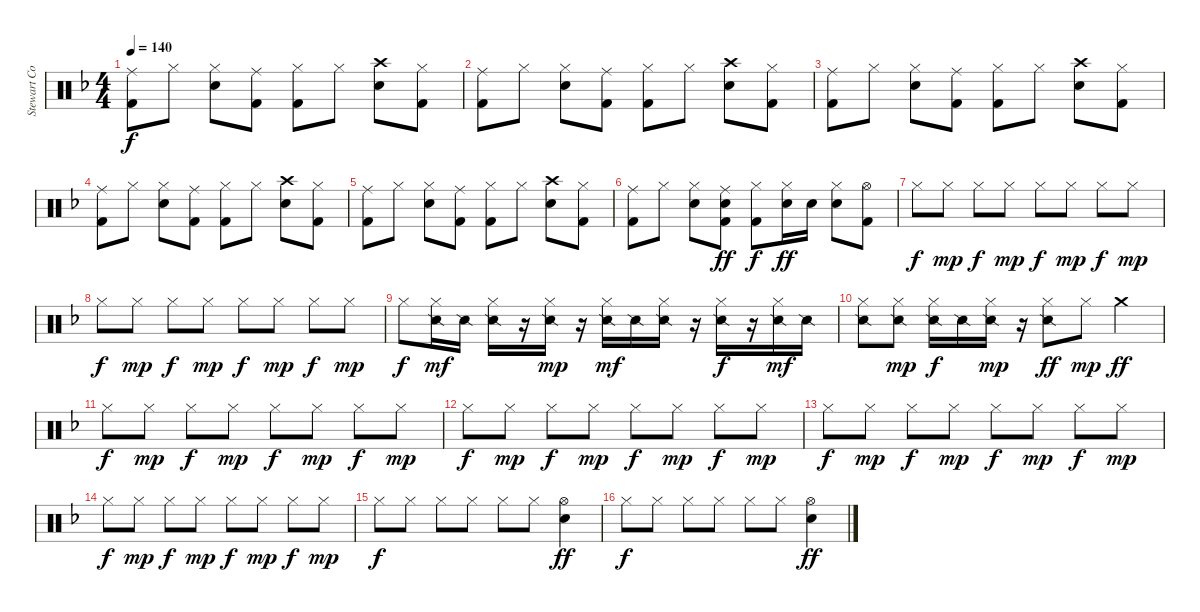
\track ("Stewart Copeland" "Stewart Co") {instrument percussion}
\staff {score}
\articulation defaults
\ts (4 4)
\tempo 140
\clef neutral
\ks f
("Ride (middle)" "Kick (hit) 2").8{dy f} "Hi-Hat (closed)".8 ("Hi-Hat (closed)" "Snare (hit) 2").8 ("Ride (middle)" "Kick (hit) 2").8 ("Hi-Hat (closed)" "Kick (hit) 2").8 "Hi-Hat (closed)".8 ("Crash high (hit)" "Snare (hit) 2").8 ("Hi-Hat (closed)" "Kick (hit) 2").8 |
("Ride (middle)" "Kick (hit) 2").8 "Hi-Hat (closed)".8 ("Hi-Hat (closed)" "Snare (hit) 2").8 ("Ride (middle)" "Kick (hit) 2").8 ("Hi-Hat (closed)" "Kick (hit) 2").8 "Hi-Hat (closed)".8 ("Crash high (hit)" "Snare (hit) 2").8 ("Hi-Hat (closed)" "Kick (hit) 2").8 |
("Ride (middle)" "Kick (hit) 2").8 "Hi-Hat (closed)".8 ("Hi-Hat (closed)" "Snare (hit) 2").8 ("Ride (middle)" "Kick (hit) 2").8 ("Hi-Hat (closed)" "Kick (hit) 2").8 "Hi-Hat (closed)".8 ("Crash high (hit)" "Snare (hit) 2").8 ("Hi-Hat (closed)" "Kick (hit) 2").8 |
("Ride (middle)" "Kick (hit) 2").8 "Hi-Hat (closed)".8 ("Hi-Hat (closed)" "Snare (hit) 2").8 ("Ride (middle)" "Kick (hit) 2").8 ("Hi-Hat (closed)" "Kick (hit) 2").8 "Hi-Hat (closed)".8 ("Crash high (hit)" "Snare (hit) 2").8 ("Hi-Hat (closed)" "Kick (hit) 2").8 |
("Ride (middle)" "Kick (hit) 2").8 "Hi-Hat (closed)".8 ("Hi-Hat (closed)" "Snare (hit) 2").8 ("Ride (middle)" "Kick (hit) 2").8 ("Hi-Hat (closed)" "Kick (hit) 2").8 "Hi-Hat (closed)".8 ("Crash high (hit)" "Snare (hit) 2").8 ("Hi-Hat (closed)" "Kick (hit) 2").8 |
("Ride (middle)" "Kick (hit) 2").8 "Hi-Hat (closed)".8 ("Hi-Hat (closed)" "Snare (hit) 2").8 ("Ride (middle)" "Snare (hit) 2" "Kick (hit) 2").8{dy ff} ("Hi-Hat (closed)" "Kick (hit) 2").8{dy f} ("Hi-Hat (closed)" "Snare (hit) 2").16{dy ff} "Snare (hit) 2".16 ("Hi-Hat (closed)" "Snare (hit) 2").8 ("Hi-Hat (open)" "Kick (hit) 2").8 |
"Hi-Hat (closed)".8{dy f} "Hi-Hat (closed)".8{dy mp} "Hi-Hat (closed)".8{dy f} "Hi-Hat (closed)".8{dy mp} "Hi-Hat (closed)".8{dy f} "Hi-Hat (closed)".8{dy mp} "Hi-Hat (closed)".8{dy f} "Hi-Hat (closed)".8{dy mp} |
"Hi-Hat (closed)".8{dy f} "Hi-Hat (closed)".8{dy mp} "Hi-Hat (closed)".8{dy f} "Hi-Hat (closed)".8{dy mp} "Hi-Hat (closed)".8{dy f} "Hi-Hat (closed)".8{dy mp} "Hi-Hat (closed)".8{dy f} "Hi-Hat (closed)".8{dy mp} |
"Hi-Hat (closed)".8{dy f} ("Hi-Hat (closed)" "Snare (side stick) 2").16{dy mf} "Snare (side stick) 2".16 ("Hi-Hat (closed)" "Snare (side stick) 2").16 r.16 ("Hi-Hat (closed)" "Snare (side stick) 2").16{dy mp} r.16 ("Hi-Hat (closed)" "Snare (side stick) 2").16{dy mf} "Snare (side stick) 2".16 ("Hi-Hat (closed)" "Snare (side stick) 2").16 r.16 ("Hi-Hat (closed)" "Snare (side stick) 2").16{dy f} r.16 ("Hi-Hat (closed)" "Snare (side stick) 2").16{dy mf} "Snare (side stick) 2".16 |
("Hi-Hat (closed)" "Snare (side stick) 2").8 ("Hi-Hat (closed)" "Snare (side stick) 2").8{dy mp} ("Hi-Hat (closed)" "Snare (side stick) 2").16{dy f} "Snare (side stick) 2".16 ("Hi-Hat (closed)" "Snare (side stick) 2").16{dy mp} r.16 ("Hi-Hat (closed)" "Snare (side stick) 2").8{dy ff} "Hi-Hat (closed)".8{dy mp} "Crash medium (hit)".4{dy ff} |
"Hi-Hat (closed)".8{dy f} "Hi-Hat (closed)".8{dy mp} "Hi-Hat (closed)".8{dy f} "Hi-Hat (closed)".8{dy mp} "Hi-Hat (closed)".8{dy f} "Hi-Hat (closed)".8{dy mp} "Hi-Hat (closed)".8{dy f} "Hi-Hat (closed)".8{dy mp} |
"Hi-Hat (closed)".8{dy f} "Hi-Hat (closed)".8{dy mp} "Hi-Hat (closed)".8{dy f} "Hi-Hat (closed)".8{dy mp} "Hi-Hat (closed)".8{dy f} "Hi-Hat (closed)".8{dy mp} "Hi-Hat (closed)".8{dy f} "Hi-Hat (closed)".8{dy mp} |
"Hi-Hat (closed)".8{dy f} "Hi-Hat (closed)".8{dy mp} "Hi-Hat (closed)".8{dy f} "Hi-Hat (closed)".8{dy mp} "Hi-Hat (closed)".8{dy f} "Hi-Hat (closed)".8{dy mp} "Hi-Hat (closed)".8{dy f} "Hi-Hat (closed)".8{dy mp} |
"Hi-Hat (closed)".8{dy f} "Hi-Hat (closed)".8{dy mp} "Hi-Hat (closed)".8{dy f} "Hi-Hat (closed)".8{dy mp} "Hi-Hat (closed)".8{dy f} "Hi-Hat (closed)".8{dy mp} "Hi-Hat (closed)".8{dy f} "Hi-Hat (closed)".8{dy mp} |
"Hi-Hat (closed)".8{dy f} "Hi-Hat (closed)".8 "Hi-Hat (closed)".8 "Hi-Hat (closed)".8 "Hi-Hat (closed)".8 "Hi-Hat (closed)".8 ("Hi-Hat (open)" "Snare (hit) 2").4{dy ff} |
"Hi-Hat (closed)".8{dy f} "Hi-Hat (closed)".8 "Hi-Hat (closed)".8 "Hi-Hat (closed)".8 "Hi-Hat (closed)".8 "Hi-Hat (closed)".8 ("Hi-Hat (open)" "Snare (hit) 2").4{dy ff}
